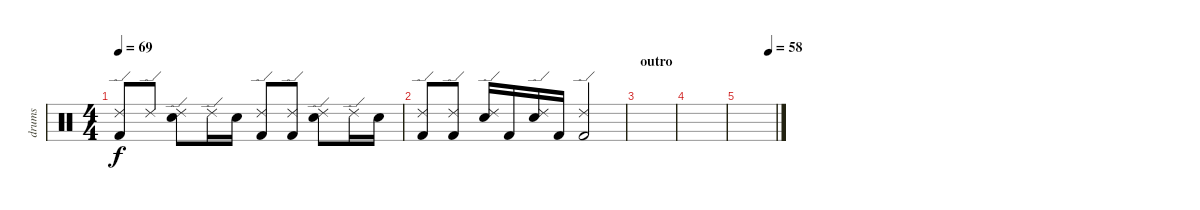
\track ("drums" "drums") {instrument percussion}
\staff {score}
\articulation defaults
\ts (4 4)
\tempo 69
\clef neutral
\ks c
("Ride (edge) 2" "Kick (hit) 2").8{dy f} "Ride (edge) 2".8 ("Ride (edge) 2" "Electric Snare (hit)").8 "Ride (edge) 2".16 "Electric Snare (hit)".16 ("Ride (edge) 2" "Kick (hit) 2").8 ("Ride (edge) 2" "Kick (hit) 2").8 ("Ride (edge) 2" "Electric Snare (hit)").8 "Ride (edge) 2".16 "Electric Snare (hit)".16 |
("Ride (edge) 2" "Kick (hit) 2").8 ("Ride (edge) 2" "Kick (hit) 2").8 ("Ride (edge) 2" "Electric Snare (hit)").16 "Kick (hit) 2".16 ("Ride (edge) 2" "Electric Snare (hit)").16 "Kick (hit) 2".16 ("Ride (edge) 2" "Kick (hit) 2").2 |
\section ("" "outro")
|
|
\tempo (58 0.8125)
